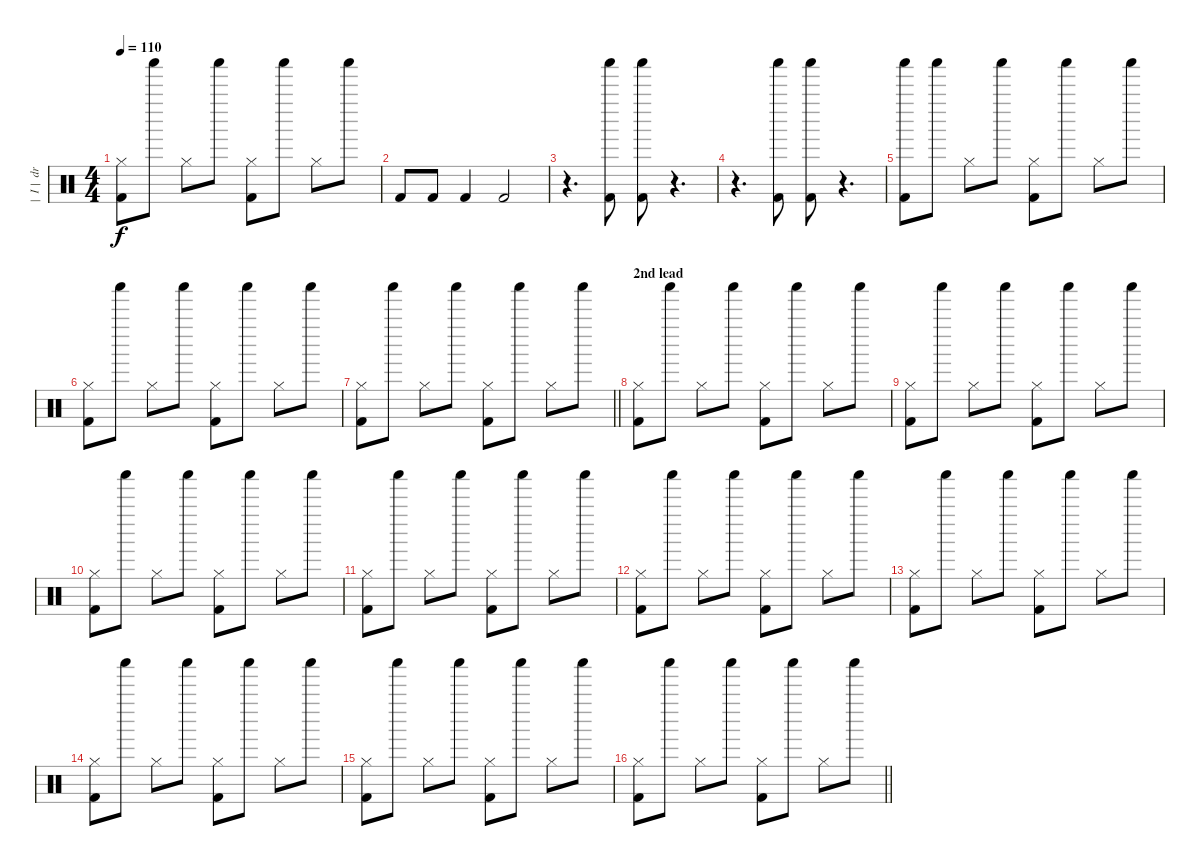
\track ("|  I |  drum" "|  I |  dr") {instrument percussion}
\staff {score}
\articulation defaults
\ts (4 4)
\tempo 110
\clef neutral
\ks c
("Kick (hit) 2" "Hi-Hat (closed)").8{dy f} "Shaker (hit)".8 "Hi-Hat (closed)".8 "Shaker (hit)".8 ("Kick (hit) 2" "Hi-Hat (closed)").8 "Shaker (hit)".8 "Hi-Hat (closed)".8 "Shaker (hit)".8 |
"Kick (hit) 2".8 "Kick (hit) 2".8 "Kick (hit) 2".4 "Kick (hit) 2".2 |
r.4{d} ("Kick (hit) 2" "Shaker (hit)").8 ("Kick (hit) 2" "Shaker (hit)").8 r.4{d} |
r.4{d} ("Kick (hit) 2" "Shaker (hit)").8 ("Kick (hit) 2" "Shaker (hit)").8 r.4{d} |
("Kick (hit) 2" "Shaker (hit)").8 "Shaker (hit)".8 "Hi-Hat (closed)".8 "Shaker (hit)".8 ("Kick (hit) 2" "Hi-Hat (closed)").8 "Shaker (hit)".8 "Hi-Hat (closed)".8 "Shaker (hit)".8 |
("Kick (hit) 2" "Hi-Hat (closed)").8 "Shaker (hit)".8 "Hi-Hat (closed)".8 "Shaker (hit)".8 ("Kick (hit) 2" "Hi-Hat (closed)").8 "Shaker (hit)".8 "Hi-Hat (closed)".8 "Shaker (hit)".8 |
\barLineRight lightlight
("Kick (hit) 2" "Hi-Hat (closed)").8 "Shaker (hit)".8 "Hi-Hat (closed)".8 "Shaker (hit)".8 ("Kick (hit) 2" "Hi-Hat (closed)").8 "Shaker (hit)".8 "Hi-Hat (closed)".8 "Shaker (hit)".8 |
\section ("" "2nd lead")
("Kick (hit) 2" "Hi-Hat (closed)").8 "Shaker (hit)".8 "Hi-Hat (closed)".8 "Shaker (hit)".8 ("Kick (hit) 2" "Hi-Hat (closed)").8 "Shaker (hit)".8 "Hi-Hat (closed)".8 "Shaker (hit)".8 |
("Kick (hit) 2" "Hi-Hat (closed)").8 "Shaker (hit)".8 "Hi-Hat (closed)".8 "Shaker (hit)".8 ("Kick (hit) 2" "Hi-Hat (closed)").8 "Shaker (hit)".8 "Hi-Hat (closed)".8 "Shaker (hit)".8 |
("Kick (hit) 2" "Hi-Hat (closed)").8 "Shaker (hit)".8 "Hi-Hat (closed)".8 "Shaker (hit)".8 ("Kick (hit) 2" "Hi-Hat (closed)").8 "Shaker (hit)".8 "Hi-Hat (closed)".8 "Shaker (hit)".8 |
("Kick (hit) 2" "Hi-Hat (closed)").8 "Shaker (hit)".8 "Hi-Hat (closed)".8 "Shaker (hit)".8 ("Kick (hit) 2" "Hi-Hat (closed)").8 "Shaker (hit)".8 "Hi-Hat (closed)".8 "Shaker (hit)".8 |
("Kick (hit) 2" "Hi-Hat (closed)").8 "Shaker (hit)".8 "Hi-Hat (closed)".8 "Shaker (hit)".8 ("Kick (hit) 2" "Hi-Hat (closed)").8 "Shaker (hit)".8 "Hi-Hat (closed)".8 "Shaker (hit)".8 |
("Kick (hit) 2" "Hi-Hat (closed)").8 "Shaker (hit)".8 "Hi-Hat (closed)".8 "Shaker (hit)".8 ("Kick (hit) 2" "Hi-Hat (closed)").8 "Shaker (hit)".8 "Hi-Hat (closed)".8 "Shaker (hit)".8 |
("Kick (hit) 2" "Hi-Hat (closed)").8 "Shaker (hit)".8 "Hi-Hat (closed)".8 "Shaker (hit)".8 ("Kick (hit) 2" "Hi-Hat (closed)").8 "Shaker (hit)".8 "Hi-Hat (closed)".8 "Shaker (hit)".8 |
("Kick (hit) 2" "Hi-Hat (closed)").8 "Shaker (hit)".8 "Hi-Hat (closed)".8 "Shaker (hit)".8 ("Kick (hit) 2" "Hi-Hat (closed)").8 "Shaker (hit)".8 "Hi-Hat (closed)".8 "Shaker (hit)".8 |
\barLineRight lightlight
("Kick (hit) 2" "Hi-Hat (closed)").8 "Shaker (hit)".8 "Hi-Hat (closed)".8 "Shaker (hit)".8 ("Kick (hit) 2" "Hi-Hat (closed)").8 "Shaker (hit)".8 "Hi-Hat (closed)".8 "Shaker (hit)".8
